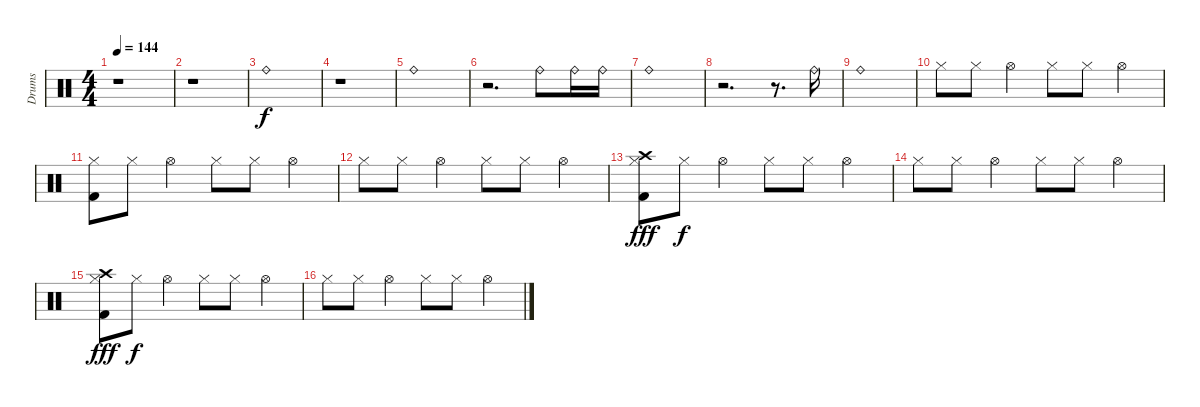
\track ("Drums" "Drums") {instrument percussion}
\staff {score}
\articulation defaults
\ts (4 4)
\tempo 144
\clef neutral
\ks c
r.1{dy f} |
r.1 |
"Ride (bell)".1 |
r.1 |
"Ride (bell)".1 |
r.2{d} "Ride (bell)".8 "Ride (bell)".16 "Ride (bell)".16 |
"Ride (bell)".1 |
r.2{d} r.8{d} "Ride (bell)".16 |
"Ride (bell)".1 |
"Hi-Hat (closed)".8 "Hi-Hat (closed)".8 "Hi-Hat (open)".4 "Hi-Hat (closed)".8 "Hi-Hat (closed)".8 "Hi-Hat (open)".4 |
("Hi-Hat (closed)" "Kick (hit) 2").8 "Hi-Hat (closed)".8 "Hi-Hat (open)".4 "Hi-Hat (closed)".8 "Hi-Hat (closed)".8 "Hi-Hat (open)".4 |
"Hi-Hat (closed)".8 "Hi-Hat (closed)".8 "Hi-Hat (open)".4 "Hi-Hat (closed)".8 "Hi-Hat (closed)".8 "Hi-Hat (open)".4 |
("Crash high (hit)" "Hi-Hat (closed)" "Kick (hit) 2").8{dy fff} "Hi-Hat (closed)".8{dy f} "Hi-Hat (open)".4 "Hi-Hat (closed)".8 "Hi-Hat (closed)".8 "Hi-Hat (open)".4 |
"Hi-Hat (closed)".8 "Hi-Hat (closed)".8 "Hi-Hat (open)".4 "Hi-Hat (closed)".8 "Hi-Hat (closed)".8 "Hi-Hat (open)".4 |
("Crash high (hit)" "Hi-Hat (closed)" "Kick (hit) 2").8{dy fff} "Hi-Hat (closed)".8{dy f} "Hi-Hat (open)".4 "Hi-Hat (closed)".8 "Hi-Hat (closed)".8 "Hi-Hat (open)".4 |
"Hi-Hat (closed)".8 "Hi-Hat (closed)".8 "Hi-Hat (open)".4 "Hi-Hat (closed)".8 "Hi-Hat (closed)".8 "Hi-Hat (open)".4
